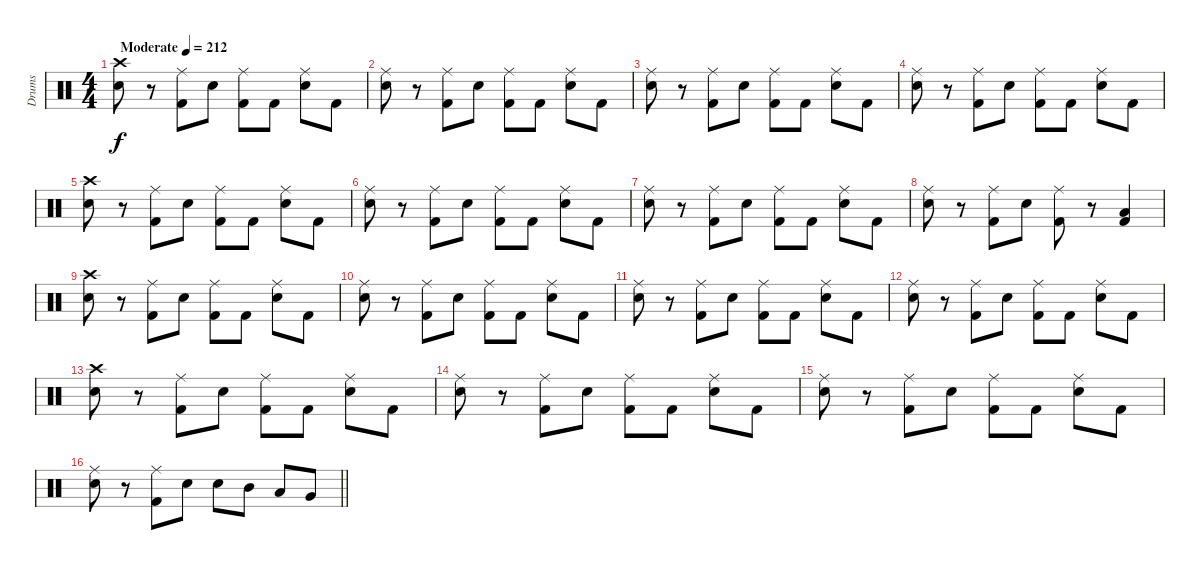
\track ("Drums" "Drums") {instrument percussion}
\staff {score}
\articulation defaults
\ts (4 4)
\tempo (212 "Moderate")
\clef neutral
\ks c
("Crash high (hit)" "Snare (hit) 2").8{dy f} r.8 ("Ride (middle)" "Kick (hit) 2").8 "Snare (hit) 2".8 ("Ride (middle)" "Kick (hit) 2").8 "Kick (hit) 2".8 ("Ride (middle)" "Snare (hit) 2").8 "Kick (hit) 2".8 |
("Ride (middle)" "Snare (hit) 2").8 r.8 ("Ride (middle)" "Kick (hit) 2").8 "Snare (hit) 2".8 ("Ride (middle)" "Kick (hit) 2").8 "Kick (hit) 2".8 ("Ride (middle)" "Snare (hit) 2").8 "Kick (hit) 2".8 |
("Ride (middle)" "Snare (hit) 2").8 r.8 ("Ride (middle)" "Kick (hit) 2").8 "Snare (hit) 2".8 ("Ride (middle)" "Kick (hit) 2").8 "Kick (hit) 2".8 ("Ride (middle)" "Snare (hit) 2").8 "Kick (hit) 2".8 |
("Ride (middle)" "Snare (hit) 2").8 r.8 ("Ride (middle)" "Kick (hit) 2").8 "Snare (hit) 2".8 ("Ride (middle)" "Kick (hit) 2").8 "Kick (hit) 2".8 ("Ride (middle)" "Snare (hit) 2").8 "Kick (hit) 2".8 |
("Crash high (hit)" "Snare (hit) 2").8 r.8 ("Ride (middle)" "Kick (hit) 2").8 "Snare (hit) 2".8 ("Ride (middle)" "Kick (hit) 2").8 "Kick (hit) 2".8 ("Ride (middle)" "Snare (hit) 2").8 "Kick (hit) 2".8 |
("Ride (middle)" "Snare (hit) 2").8 r.8 ("Ride (middle)" "Kick (hit) 2").8 "Snare (hit) 2".8 ("Ride (middle)" "Kick (hit) 2").8 "Kick (hit) 2".8 ("Ride (middle)" "Snare (hit) 2").8 "Kick (hit) 2".8 |
("Ride (middle)" "Snare (hit) 2").8 r.8 ("Ride (middle)" "Kick (hit) 2").8 "Snare (hit) 2".8 ("Ride (middle)" "Kick (hit) 2").8 "Kick (hit) 2".8 ("Ride (middle)" "Snare (hit) 2").8 "Kick (hit) 2".8 |
("Ride (middle)" "Snare (hit) 2").8 r.8 ("Ride (middle)" "Kick (hit) 2").8 "Snare (hit) 2".8 ("Ride (middle)" "Kick (hit) 2").8 r.8 ("Low Floor Tom (hit)" "Kick (hit) 2").4 |
("Crash high (hit)" "Snare (hit) 2").8 r.8 ("Ride (middle)" "Kick (hit) 2").8 "Snare (hit) 2".8 ("Ride (middle)" "Kick (hit) 2").8 "Kick (hit) 2".8 ("Ride (middle)" "Snare (hit) 2").8 "Kick (hit) 2".8 |
("Ride (middle)" "Snare (hit) 2").8 r.8 ("Ride (middle)" "Kick (hit) 2").8 "Snare (hit) 2".8 ("Ride (middle)" "Kick (hit) 2").8 "Kick (hit) 2".8 ("Ride (middle)" "Snare (hit) 2").8 "Kick (hit) 2".8 |
("Ride (middle)" "Snare (hit) 2").8 r.8 ("Ride (middle)" "Kick (hit) 2").8 "Snare (hit) 2".8 ("Ride (middle)" "Kick (hit) 2").8 "Kick (hit) 2".8 ("Ride (middle)" "Snare (hit) 2").8 "Kick (hit) 2".8 |
("Ride (middle)" "Snare (hit) 2").8 r.8 ("Ride (middle)" "Kick (hit) 2").8 "Snare (hit) 2".8 ("Ride (middle)" "Kick (hit) 2").8 "Kick (hit) 2".8 ("Ride (middle)" "Snare (hit) 2").8 "Kick (hit) 2".8 |
("Crash high (hit)" "Snare (hit) 2").8 r.8 ("Ride (middle)" "Kick (hit) 2").8 "Snare (hit) 2".8 ("Ride (middle)" "Kick (hit) 2").8 "Kick (hit) 2".8 ("Ride (middle)" "Snare (hit) 2").8 "Kick (hit) 2".8 |
("Ride (middle)" "Snare (hit) 2").8 r.8 ("Ride (middle)" "Kick (hit) 2").8 "Snare (hit) 2".8 ("Ride (middle)" "Kick (hit) 2").8 "Kick (hit) 2".8 ("Ride (middle)" "Snare (hit) 2").8 "Kick (hit) 2".8 |
("Ride (middle)" "Snare (hit) 2").8 r.8 ("Ride (middle)" "Kick (hit) 2").8 "Snare (hit) 2".8 ("Ride (middle)" "Kick (hit) 2").8 "Kick (hit) 2".8 ("Ride (middle)" "Snare (hit) 2").8 "Kick (hit) 2".8 |
\barLineRight lightlight
("Ride (middle)" "Snare (hit) 2").8 r.8 ("Ride (middle)" "Kick (hit) 2").8 "Snare (hit) 2".8 "Snare (hit) 2".8 "Mid Tom (hit)".8 "Low Tom (hit)".8 "Very Low Tom (hit)".8
